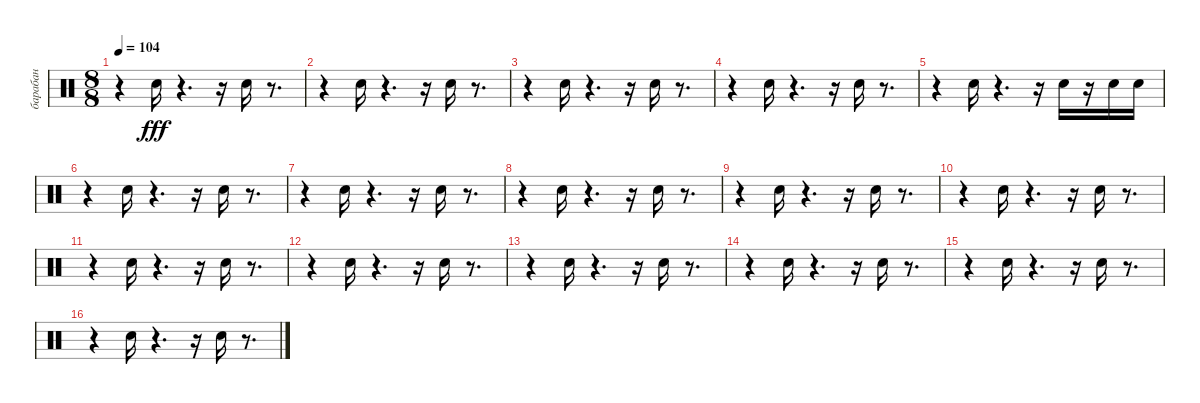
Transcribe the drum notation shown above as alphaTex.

\track ("барабан" "барабан") {instrument percussion}
\staff {score}
\articulation defaults
\ts (8 8)
\tempo 104
\clef neutral
\ks c
r.4{dy fff} "Snare (hit) 2".16 r.4{d} r.16 "Snare (hit) 2".16 r.8{d} |
r.4 "Snare (hit) 2".16 r.4{d} r.16 "Snare (hit) 2".16 r.8{d} |
r.4 "Snare (hit) 2".16 r.4{d} r.16 "Snare (hit) 2".16 r.8{d} |
r.4 "Snare (hit) 2".16 r.4{d} r.16 "Snare (hit) 2".16 r.8{d} |
r.4 "Snare (hit) 2".16 r.4{d} r.16 "Snare (hit) 2".16 r.16 "Snare (hit) 2".16 "Snare (hit) 2".16 |
r.4 "Snare (hit) 2".16 r.4{d} r.16 "Snare (hit) 2".16 r.8{d} |
r.4 "Snare (hit) 2".16 r.4{d} r.16 "Snare (hit) 2".16 r.8{d} |
r.4 "Snare (hit) 2".16 r.4{d} r.16 "Snare (hit) 2".16 r.8{d} |
r.4 "Snare (hit) 2".16 r.4{d} r.16 "Snare (hit) 2".16 r.8{d} |
r.4 "Snare (hit) 2".16 r.4{d} r.16 "Snare (hit) 2".16 r.8{d} |
r.4 "Snare (hit) 2".16 r.4{d} r.16 "Snare (hit) 2".16 r.8{d} |
r.4 "Snare (hit) 2".16 r.4{d} r.16 "Snare (hit) 2".16 r.8{d} |
r.4 "Snare (hit) 2".16 r.4{d} r.16 "Snare (hit) 2".16 r.8{d} |
r.4 "Snare (hit) 2".16 r.4{d} r.16 "Snare (hit) 2".16 r.8{d} |
r.4 "Snare (hit) 2".16 r.4{d} r.16 "Snare (hit) 2".16 r.8{d} |
r.4 "Snare (hit) 2".16 r.4{d} r.16 "Snare (hit) 2".16 r.8{d}
